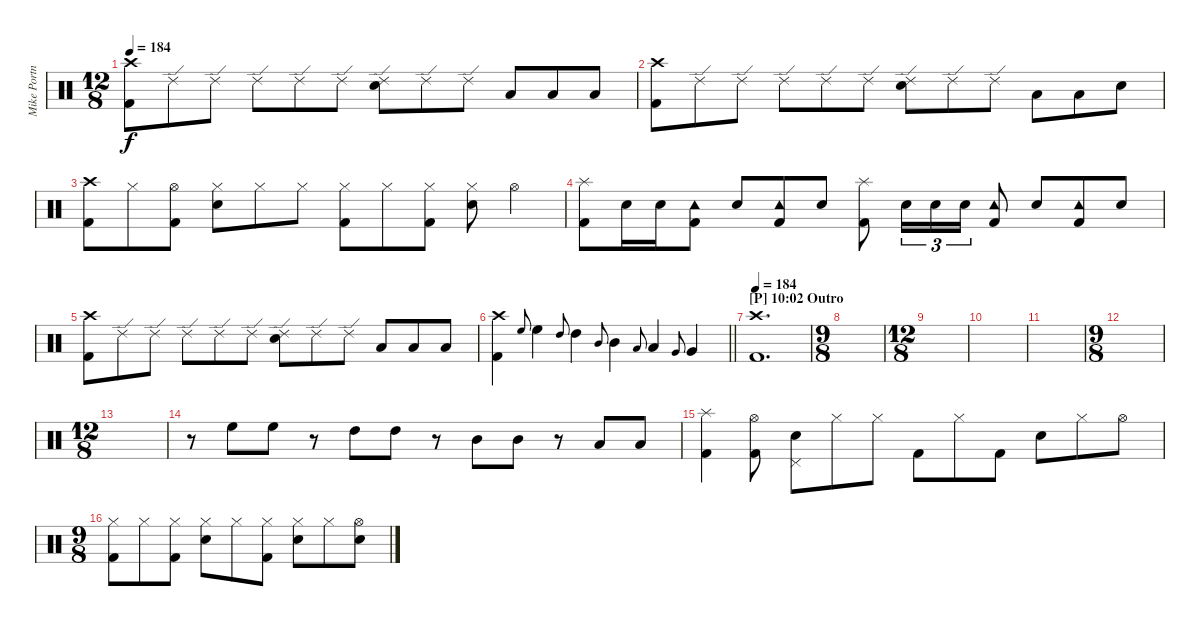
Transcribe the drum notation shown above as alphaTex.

\track ("Mike Portnoy - Drum" "Mike Portn") {instrument percussion}
\staff {score}
\articulation defaults
\ts (12 8)
\tempo 184
\clef neutral
\ks c
("Crash high (hit)" "Kick (hit) 2").8{dy f} "Ride (edge) 2".8 "Ride (edge) 2".8 "Ride (edge) 2".8 "Ride (edge) 2".8 "Ride (edge) 2".8 ("Ride (edge) 2" "Electric Snare (hit)").8 "Ride (edge) 2".8 "Ride (edge) 2".8 "Low Tom (hit)".8 "Low Tom (hit)".8 "Low Tom (hit)".8 |
("Crash high (hit)" "Kick (hit) 2").8 "Ride (edge) 2".8 "Ride (edge) 2".8 "Ride (edge) 2".8 "Ride (edge) 2".8 "Ride (edge) 2".8 ("Ride (edge) 2" "Electric Snare (hit)").8 "Ride (edge) 2".8 "Ride (edge) 2".8 "Low Tom (hit)".8 "Low Tom (hit)".8 "Electric Snare (hit)".8 |
("Crash high (hit)" "Kick (hit) 2").8 "Hi-Hat (closed)".8 ("Hi-Hat (open)" "Kick (hit) 2").8 ("Hi-Hat (closed)" "Electric Snare (hit)").8 "Hi-Hat (closed)".8 "Hi-Hat (closed)".8 ("Hi-Hat (closed)" "Kick (hit) 2").8 "Hi-Hat (closed)".8 ("Hi-Hat (closed)" "Kick (hit) 2").8 ("Hi-Hat (closed)" "Electric Snare (hit)").8 "Hi-Hat (open)".4 |
("Splash (hit)" "Kick (hit) 2").8 "Electric Snare (hit)".16 "Electric Snare (hit)".16 ("Tambourine (hit)" "Kick (hit) 2").8 "Electric Snare (hit)".8 ("Tambourine (hit)" "Kick (hit) 2").8 "Electric Snare (hit)".8 ("Splash (hit)" "Kick (hit) 2").8 "Electric Snare (hit)".16{tu (3 2)} "Electric Snare (hit)".16{tu (3 2)} "Electric Snare (hit)".16{tu (3 2)} ("Tambourine (hit)" "Kick (hit) 2").8 "Electric Snare (hit)".8 ("Tambourine (hit)" "Kick (hit) 2").8 "Electric Snare (hit)".8 |
("Crash high (hit)" "Kick (hit) 2").8 "Ride (edge) 2".8 "Ride (edge) 2".8 "Ride (edge) 2".8 "Ride (edge) 2".8 "Ride (edge) 2".8 ("Ride (edge) 2" "Electric Snare (hit)").8 "Ride (edge) 2".8 "Ride (edge) 2".8 "Low Tom (hit)".8 "Low Tom (hit)".8 "Low Tom (hit)".8 |
\barLineRight lightlight
("Crash high (hit)" "Kick (hit) 2").4 "High Floor Tom (hit)".8{gr onbeat} "High Floor Tom (hit)".4 "High Tom (hit)".8{gr onbeat} "High Tom (hit)".4 "Mid Tom (hit)".8{gr onbeat} "Mid Tom (hit)".4 "Low Tom (hit)".8{gr onbeat} "Low Tom (hit)".4 "Very Low Tom (hit)".8{gr onbeat} "Very Low Tom (hit)".4 |
\section ("" "[P] 10:02 Outro")
\tempo 184
("Crash high (hit)" "Kick (hit) 2").1{d} |
\ts (9 8)
|
\ts (12 8)
|
|
|
\ts (9 8)
|
\ts (12 8)
|
r.8 "High Floor Tom (hit)".8 "High Floor Tom (hit)".8 r.8 "High Tom (hit)".8 "High Tom (hit)".8 r.8 "Mid Tom (hit)".8 "Mid Tom (hit)".8 r.8 "Low Tom (hit)".8 "Low Tom (hit)".8 |
("Splash (hit)" "Kick (hit) 2").4 ("Hi-Hat (open)" "Kick (hit) 2").8 ("Electric Snare (hit)" "Pedal Hi-Hat (hit)").8 "Hi-Hat (closed)".8 "Hi-Hat (closed)".8 "Kick (hit) 2".8 "Hi-Hat (closed)".8 "Kick (hit) 2".8 "Electric Snare (hit)".8 "Hi-Hat (closed)".8 "Hi-Hat (open)".8 |
\ts (9 8)
("Hi-Hat (closed)" "Kick (hit) 2").8 "Hi-Hat (closed)".8 ("Hi-Hat (closed)" "Kick (hit) 2").8 ("Hi-Hat (closed)" "Electric Snare (hit)").8 "Hi-Hat (closed)".8 ("Hi-Hat (closed)" "Kick (hit) 2").8 ("Hi-Hat (closed)" "Electric Snare (hit)").8 "Hi-Hat (closed)".8 ("Hi-Hat (open)" "Electric Snare (hit)").8
